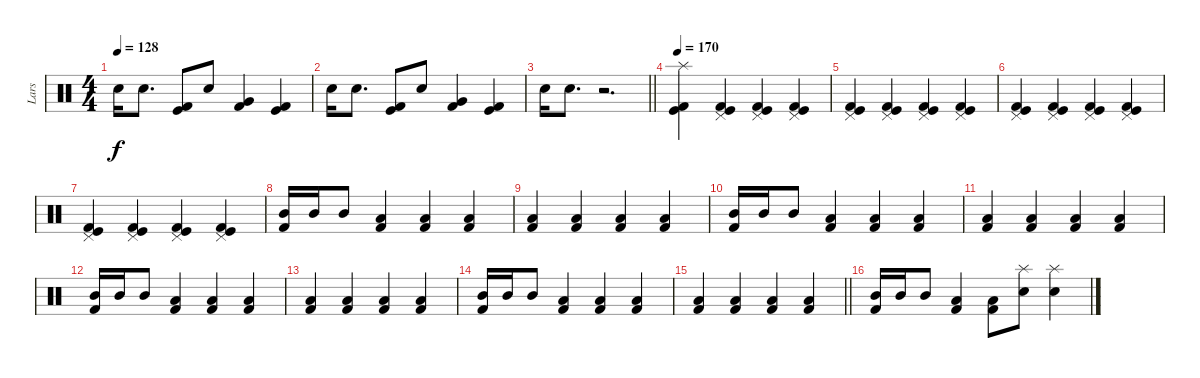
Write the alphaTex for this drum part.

\track ("Lars" "Lars") {instrument percussion}
\staff {score}
\articulation defaults
\ts (4 4)
\tempo 128
\clef neutral
\ks c "Electric Snare (hit)".16{dy f} "Electric Snare (hit)".8{d}
("Kick (hit)" "Kick (hit) 2").8 "Electric Snare (hit)".8 ("Kick (hit) 2" "Very Low Tom (hit)").4 ("Kick (hit) 2" "Kick (hit)").4 |
"Electric Snare (hit)".16 "Electric Snare (hit)".8{d} ("Kick (hit)" "Kick (hit) 2").8 "Electric Snare (hit)".8 ("Kick (hit) 2" "Very Low Tom (hit)").4 ("Kick (hit) 2" "Kick (hit)").4 |
\barLineRight lightlight "Electric Snare (hit)".16 "Electric Snare (hit)".8{d}
r.2{d} |
\section ("" "")
\tempo 170
("Splash (hit)" "Kick (hit)" "Kick (hit) 2").4 ("Pedal Hi-Hat (hit)" "Kick (hit)" "Kick (hit) 2").4 ("Pedal Hi-Hat (hit)" "Kick (hit)" "Kick (hit) 2").4 ("Pedal Hi-Hat (hit)" "Kick (hit)" "Kick (hit) 2").4 |
("Pedal Hi-Hat (hit)" "Kick (hit)" "Kick (hit) 2").4 ("Pedal Hi-Hat (hit)" "Kick (hit)" "Kick (hit) 2").4 ("Pedal Hi-Hat (hit)" "Kick (hit)" "Kick (hit) 2").4 ("Pedal Hi-Hat (hit)" "Kick (hit)" "Kick (hit) 2").4 |
("Pedal Hi-Hat (hit)" "Kick (hit)" "Kick (hit) 2").4 ("Pedal Hi-Hat (hit)" "Kick (hit)" "Kick (hit) 2").4 ("Pedal Hi-Hat (hit)" "Kick (hit)" "Kick (hit) 2").4 ("Pedal Hi-Hat (hit)" "Kick (hit)" "Kick (hit) 2").4 |
("Pedal Hi-Hat (hit)" "Kick (hit)" "Kick (hit) 2").4 ("Pedal Hi-Hat (hit)" "Kick (hit)" "Kick (hit) 2").4 ("Pedal Hi-Hat (hit)" "Kick (hit)" "Kick (hit) 2").4 ("Pedal Hi-Hat (hit)" "Kick (hit)" "Kick (hit) 2").4 |
("Kick (hit) 2" "Mid Tom (hit)").16 "Mid Tom (hit)".16 "Mid Tom (hit)".8 ("Kick (hit) 2" "Low Tom (hit)").4 ("Kick (hit) 2" "Low Tom (hit)").4 ("Kick (hit) 2" "Low Tom (hit)").4 |
("Kick (hit) 2" "Low Tom (hit)").4 ("Kick (hit) 2" "Low Tom (hit)").4 ("Kick (hit) 2" "Low Tom (hit)").4 ("Kick (hit) 2" "Low Tom (hit)").4 |
("Kick (hit) 2" "Mid Tom (hit)").16 "Mid Tom (hit)".16 "Mid Tom (hit)".8 ("Kick (hit) 2" "Low Tom (hit)").4 ("Kick (hit) 2" "Low Tom (hit)").4 ("Kick (hit) 2" "Low Tom (hit)").4 |
("Kick (hit) 2" "Low Tom (hit)").4 ("Kick (hit) 2" "Low Tom (hit)").4 ("Kick (hit) 2" "Low Tom (hit)").4 ("Kick (hit) 2" "Low Tom (hit)").4 |
("Kick (hit) 2" "Mid Tom (hit)").16 "Mid Tom (hit)".16 "Mid Tom (hit)".8 ("Kick (hit) 2" "Low Tom (hit)").4 ("Kick (hit) 2" "Low Tom (hit)").4 ("Kick (hit) 2" "Low Tom (hit)").4 |
("Kick (hit) 2" "Low Tom (hit)").4 ("Kick (hit) 2" "Low Tom (hit)").4 ("Kick (hit) 2" "Low Tom (hit)").4 ("Kick (hit) 2" "Low Tom (hit)").4 |
("Kick (hit) 2" "Mid Tom (hit)").16 "Mid Tom (hit)".16 "Mid Tom (hit)".8 ("Kick (hit) 2" "Low Tom (hit)").4 ("Kick (hit) 2" "Low Tom (hit)").4 ("Kick (hit) 2" "Low Tom (hit)").4 |
\barLineRight lightlight
("Kick (hit) 2" "Low Tom (hit)").4 ("Kick (hit) 2" "Low Tom (hit)").4 ("Kick (hit) 2" "Low Tom (hit)").4 ("Kick (hit) 2" "Low Tom (hit)").4 |
\section ("" "")
("Kick (hit) 2" "Mid Tom (hit)").16 "Mid Tom (hit)".16 "Mid Tom (hit)".8 ("Kick (hit) 2" "Low Tom (hit)").4 ("Kick (hit) 2" "Low Tom (hit)").8 ("Splash (hit)" "Electric Snare (hit)").8 ("Splash (hit)" "Electric Snare (hit)").4
